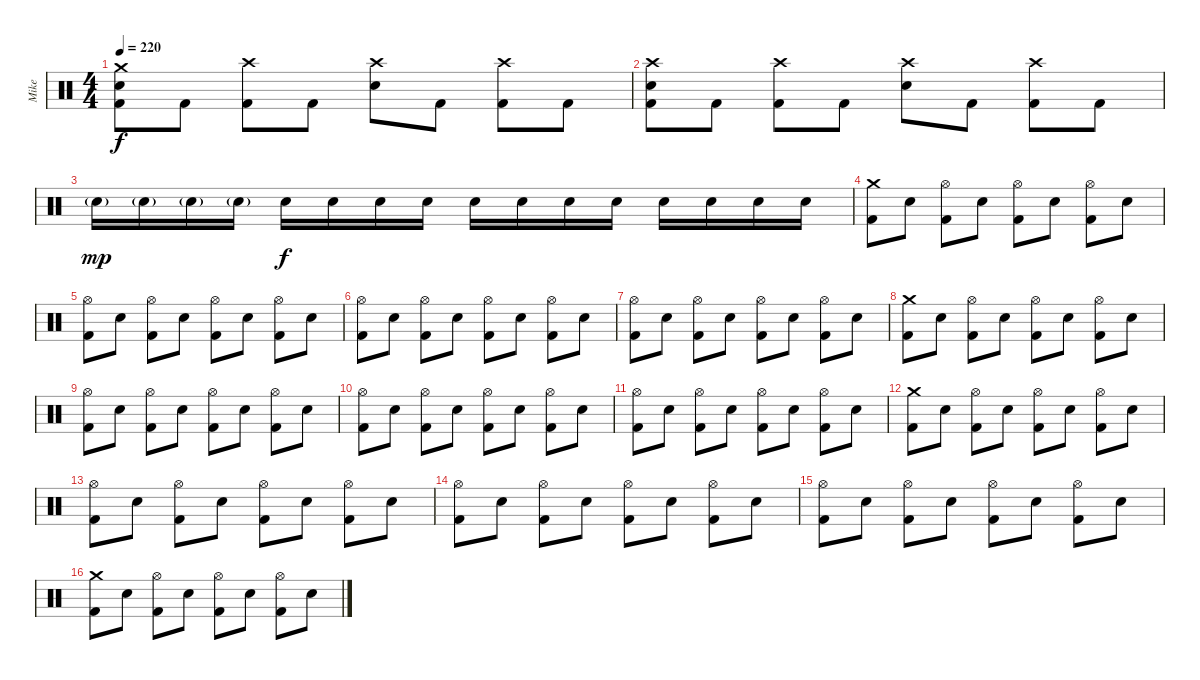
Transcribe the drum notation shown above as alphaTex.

\track ("Mike" "Mike") {instrument percussion}
\staff {score}
\articulation defaults
\ts (4 4)
\tempo 220
\clef neutral
\ks c
("Crash medium (hit)" "Electric Snare (hit)" "Kick (hit) 2").8{dy f} "Kick (hit) 2".8 ("Crash high (hit)" "Kick (hit) 2").8 "Kick (hit) 2".8 ("Crash high (hit)" "Electric Snare (hit)").8 "Kick (hit) 2".8 ("Crash high (hit)" "Kick (hit) 2").8 "Kick (hit) 2".8 |
("Crash high (hit)" "Electric Snare (hit)" "Kick (hit) 2").8 "Kick (hit) 2".8 ("Crash high (hit)" "Kick (hit) 2").8 "Kick (hit) 2".8 ("Crash high (hit)" "Electric Snare (hit)").8 "Kick (hit) 2".8 ("Crash high (hit)" "Kick (hit) 2").8 "Kick (hit) 2".8 |
"Electric Snare (hit)"{g}.16{dy mp} "Electric Snare (hit)"{g}.16 "Electric Snare (hit)"{g}.16 "Electric Snare (hit)"{g}.16 "Electric Snare (hit)".16{dy f} "Electric Snare (hit)".16 "Electric Snare (hit)".16 "Electric Snare (hit)".16 "Electric Snare (hit)".16 "Electric Snare (hit)".16 "Electric Snare (hit)".16 "Electric Snare (hit)".16 "Electric Snare (hit)".16 "Electric Snare (hit)".16 "Electric Snare (hit)".16 "Electric Snare (hit)".16 |
("Crash medium (hit)" "Kick (hit) 2").8 "Electric Snare (hit)".8 ("Hi-Hat (open)" "Kick (hit) 2").8 "Electric Snare (hit)".8 ("Hi-Hat (open)" "Kick (hit) 2").8 "Electric Snare (hit)".8 ("Hi-Hat (open)" "Kick (hit) 2").8 "Electric Snare (hit)".8 |
("Hi-Hat (open)" "Kick (hit) 2").8 "Electric Snare (hit)".8 ("Hi-Hat (open)" "Kick (hit) 2").8 "Electric Snare (hit)".8 ("Hi-Hat (open)" "Kick (hit) 2").8 "Electric Snare (hit)".8 ("Hi-Hat (open)" "Kick (hit) 2").8 "Electric Snare (hit)".8 |
("Hi-Hat (open)" "Kick (hit) 2").8 "Electric Snare (hit)".8 ("Hi-Hat (open)" "Kick (hit) 2").8 "Electric Snare (hit)".8 ("Hi-Hat (open)" "Kick (hit) 2").8 "Electric Snare (hit)".8 ("Hi-Hat (open)" "Kick (hit) 2").8 "Electric Snare (hit)".8 |
("Hi-Hat (open)" "Kick (hit) 2").8 "Electric Snare (hit)".8 ("Hi-Hat (open)" "Kick (hit) 2").8 "Electric Snare (hit)".8 ("Hi-Hat (open)" "Kick (hit) 2").8 "Electric Snare (hit)".8 ("Hi-Hat (open)" "Kick (hit) 2").8 "Electric Snare (hit)".8 |
("Crash medium (hit)" "Kick (hit) 2").8 "Electric Snare (hit)".8 ("Hi-Hat (open)" "Kick (hit) 2").8 "Electric Snare (hit)".8 ("Hi-Hat (open)" "Kick (hit) 2").8 "Electric Snare (hit)".8 ("Hi-Hat (open)" "Kick (hit) 2").8 "Electric Snare (hit)".8 |
("Hi-Hat (open)" "Kick (hit) 2").8 "Electric Snare (hit)".8 ("Hi-Hat (open)" "Kick (hit) 2").8 "Electric Snare (hit)".8 ("Hi-Hat (open)" "Kick (hit) 2").8 "Electric Snare (hit)".8 ("Hi-Hat (open)" "Kick (hit) 2").8 "Electric Snare (hit)".8 |
("Hi-Hat (open)" "Kick (hit) 2").8 "Electric Snare (hit)".8 ("Hi-Hat (open)" "Kick (hit) 2").8 "Electric Snare (hit)".8 ("Hi-Hat (open)" "Kick (hit) 2").8 "Electric Snare (hit)".8 ("Hi-Hat (open)" "Kick (hit) 2").8 "Electric Snare (hit)".8 |
("Hi-Hat (open)" "Kick (hit) 2").8 "Electric Snare (hit)".8 ("Hi-Hat (open)" "Kick (hit) 2").8 "Electric Snare (hit)".8 ("Hi-Hat (open)" "Kick (hit) 2").8 "Electric Snare (hit)".8 ("Hi-Hat (open)" "Kick (hit) 2").8 "Electric Snare (hit)".8 |
("Crash medium (hit)" "Kick (hit) 2").8 "Electric Snare (hit)".8 ("Hi-Hat (open)" "Kick (hit) 2").8 "Electric Snare (hit)".8 ("Hi-Hat (open)" "Kick (hit) 2").8 "Electric Snare (hit)".8 ("Hi-Hat (open)" "Kick (hit) 2").8 "Electric Snare (hit)".8 |
("Hi-Hat (open)" "Kick (hit) 2").8 "Electric Snare (hit)".8 ("Hi-Hat (open)" "Kick (hit) 2").8 "Electric Snare (hit)".8 ("Hi-Hat (open)" "Kick (hit) 2").8 "Electric Snare (hit)".8 ("Hi-Hat (open)" "Kick (hit) 2").8 "Electric Snare (hit)".8 |
("Hi-Hat (open)" "Kick (hit) 2").8 "Electric Snare (hit)".8 ("Hi-Hat (open)" "Kick (hit) 2").8 "Electric Snare (hit)".8 ("Hi-Hat (open)" "Kick (hit) 2").8 "Electric Snare (hit)".8 ("Hi-Hat (open)" "Kick (hit) 2").8 "Electric Snare (hit)".8 |
("Hi-Hat (open)" "Kick (hit) 2").8 "Electric Snare (hit)".8 ("Hi-Hat (open)" "Kick (hit) 2").8 "Electric Snare (hit)".8 ("Hi-Hat (open)" "Kick (hit) 2").8 "Electric Snare (hit)".8 ("Hi-Hat (open)" "Kick (hit) 2").8 "Electric Snare (hit)".8 |
("Crash medium (hit)" "Kick (hit) 2").8 "Electric Snare (hit)".8 ("Hi-Hat (open)" "Kick (hit) 2").8 "Electric Snare (hit)".8 ("Hi-Hat (open)" "Kick (hit) 2").8 "Electric Snare (hit)".8 ("Hi-Hat (open)" "Kick (hit) 2").8 "Electric Snare (hit)".8
